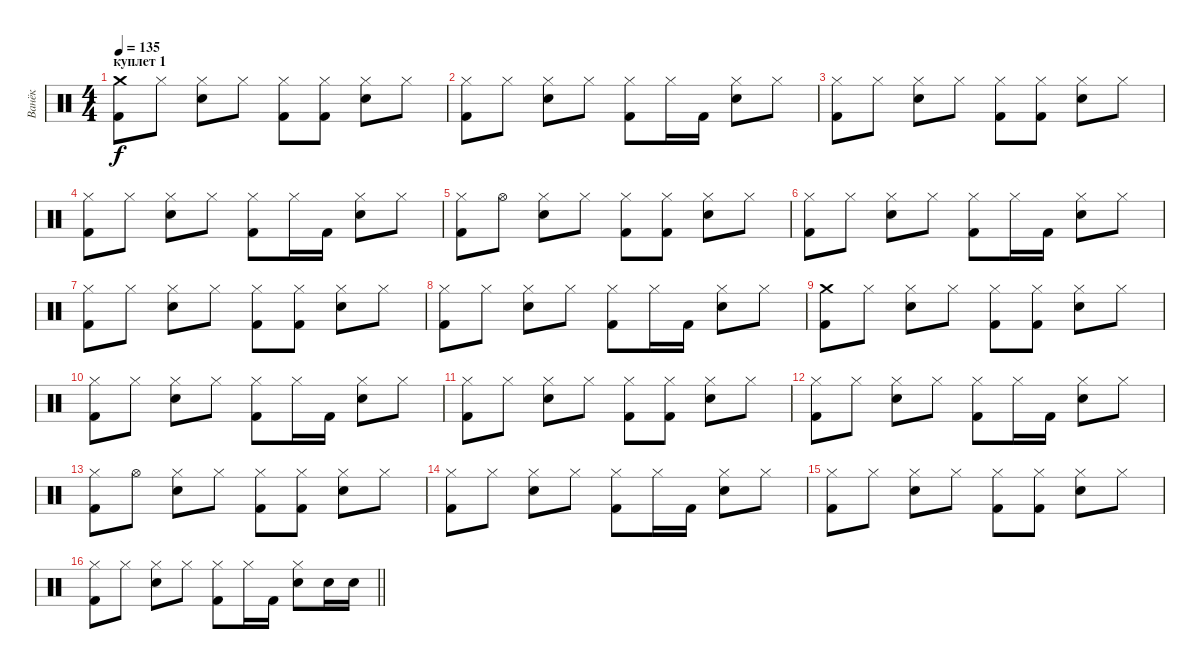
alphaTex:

\track ("Ванёк" "Ванёк") {instrument percussion}
\staff {score}
\articulation defaults
\ts (4 4)
\section ("" "куплет 1")
\tempo 135
\clef neutral
\ks c
("Crash medium (hit)" "Kick (hit) 2").8{dy f} "Hi-Hat (closed)".8 ("Hi-Hat (closed)" "Snare (hit) 2").8 "Hi-Hat (closed)".8 ("Hi-Hat (closed)" "Kick (hit) 2").8 ("Hi-Hat (closed)" "Kick (hit) 2").8 ("Hi-Hat (closed)" "Snare (hit) 2").8 "Hi-Hat (closed)".8 |
("Hi-Hat (closed)" "Kick (hit) 2").8 "Hi-Hat (closed)".8 ("Hi-Hat (closed)" "Snare (hit) 2").8 "Hi-Hat (closed)".8 ("Hi-Hat (closed)" "Kick (hit) 2").8 "Hi-Hat (closed)".16 "Kick (hit) 2".16 ("Hi-Hat (closed)" "Snare (hit) 2").8 "Hi-Hat (closed)".8 |
("Hi-Hat (closed)" "Kick (hit) 2").8 "Hi-Hat (closed)".8 ("Hi-Hat (closed)" "Snare (hit) 2").8 "Hi-Hat (closed)".8 ("Hi-Hat (closed)" "Kick (hit) 2").8 ("Hi-Hat (closed)" "Kick (hit) 2").8 ("Hi-Hat (closed)" "Snare (hit) 2").8 "Hi-Hat (closed)".8 |
("Hi-Hat (closed)" "Kick (hit) 2").8 "Hi-Hat (closed)".8 ("Hi-Hat (closed)" "Snare (hit) 2").8 "Hi-Hat (closed)".8 ("Hi-Hat (closed)" "Kick (hit) 2").8 "Hi-Hat (closed)".16 "Kick (hit) 2".16 ("Hi-Hat (closed)" "Snare (hit) 2").8 "Hi-Hat (closed)".8 |
("Hi-Hat (closed)" "Kick (hit) 2").8 "Hi-Hat (open)".8 ("Hi-Hat (closed)" "Snare (hit) 2").8 "Hi-Hat (closed)".8 ("Hi-Hat (closed)" "Kick (hit) 2").8 ("Hi-Hat (closed)" "Kick (hit) 2").8 ("Hi-Hat (closed)" "Snare (hit) 2").8 "Hi-Hat (closed)".8 |
("Hi-Hat (closed)" "Kick (hit) 2").8 "Hi-Hat (closed)".8 ("Hi-Hat (closed)" "Snare (hit) 2").8 "Hi-Hat (closed)".8 ("Hi-Hat (closed)" "Kick (hit) 2").8 "Hi-Hat (closed)".16 "Kick (hit) 2".16 ("Hi-Hat (closed)" "Snare (hit) 2").8 "Hi-Hat (closed)".8 |
("Hi-Hat (closed)" "Kick (hit) 2").8 "Hi-Hat (closed)".8 ("Hi-Hat (closed)" "Snare (hit) 2").8 "Hi-Hat (closed)".8 ("Hi-Hat (closed)" "Kick (hit) 2").8 ("Hi-Hat (closed)" "Kick (hit) 2").8 ("Hi-Hat (closed)" "Snare (hit) 2").8 "Hi-Hat (closed)".8 |
("Hi-Hat (closed)" "Kick (hit) 2").8 "Hi-Hat (closed)".8 ("Hi-Hat (closed)" "Snare (hit) 2").8 "Hi-Hat (closed)".8 ("Hi-Hat (closed)" "Kick (hit) 2").8 "Hi-Hat (closed)".16 "Kick (hit) 2".16 ("Hi-Hat (closed)" "Snare (hit) 2").8 "Hi-Hat (closed)".8 |
("Crash medium (hit)" "Kick (hit) 2").8 "Hi-Hat (closed)".8 ("Hi-Hat (closed)" "Snare (hit) 2").8 "Hi-Hat (closed)".8 ("Hi-Hat (closed)" "Kick (hit) 2").8 ("Hi-Hat (closed)" "Kick (hit) 2").8 ("Hi-Hat (closed)" "Snare (hit) 2").8 "Hi-Hat (closed)".8 |
("Hi-Hat (closed)" "Kick (hit) 2").8 "Hi-Hat (closed)".8 ("Hi-Hat (closed)" "Snare (hit) 2").8 "Hi-Hat (closed)".8 ("Hi-Hat (closed)" "Kick (hit) 2").8 "Hi-Hat (closed)".16 "Kick (hit) 2".16 ("Hi-Hat (closed)" "Snare (hit) 2").8 "Hi-Hat (closed)".8 |
("Hi-Hat (closed)" "Kick (hit) 2").8 "Hi-Hat (closed)".8 ("Hi-Hat (closed)" "Snare (hit) 2").8 "Hi-Hat (closed)".8 ("Hi-Hat (closed)" "Kick (hit) 2").8 ("Hi-Hat (closed)" "Kick (hit) 2").8 ("Hi-Hat (closed)" "Snare (hit) 2").8 "Hi-Hat (closed)".8 |
("Hi-Hat (closed)" "Kick (hit) 2").8 "Hi-Hat (closed)".8 ("Hi-Hat (closed)" "Snare (hit) 2").8 "Hi-Hat (closed)".8 ("Hi-Hat (closed)" "Kick (hit) 2").8 "Hi-Hat (closed)".16 "Kick (hit) 2".16 ("Hi-Hat (closed)" "Snare (hit) 2").8 "Hi-Hat (closed)".8 |
("Hi-Hat (closed)" "Kick (hit) 2").8 "Hi-Hat (open)".8 ("Hi-Hat (closed)" "Snare (hit) 2").8 "Hi-Hat (closed)".8 ("Hi-Hat (closed)" "Kick (hit) 2").8 ("Hi-Hat (closed)" "Kick (hit) 2").8 ("Hi-Hat (closed)" "Snare (hit) 2").8 "Hi-Hat (closed)".8 |
("Hi-Hat (closed)" "Kick (hit) 2").8 "Hi-Hat (closed)".8 ("Hi-Hat (closed)" "Snare (hit) 2").8 "Hi-Hat (closed)".8 ("Hi-Hat (closed)" "Kick (hit) 2").8 "Hi-Hat (closed)".16 "Kick (hit) 2".16 ("Hi-Hat (closed)" "Snare (hit) 2").8 "Hi-Hat (closed)".8 |
("Hi-Hat (closed)" "Kick (hit) 2").8 "Hi-Hat (closed)".8 ("Hi-Hat (closed)" "Snare (hit) 2").8 "Hi-Hat (closed)".8 ("Hi-Hat (closed)" "Kick (hit) 2").8 ("Hi-Hat (closed)" "Kick (hit) 2").8 ("Hi-Hat (closed)" "Snare (hit) 2").8 "Hi-Hat (closed)".8 |
\barLineRight lightlight
("Hi-Hat (closed)" "Kick (hit) 2").8 "Hi-Hat (closed)".8 ("Hi-Hat (closed)" "Snare (hit) 2").8 "Hi-Hat (closed)".8 ("Hi-Hat (closed)" "Kick (hit) 2").8 "Hi-Hat (closed)".16 "Kick (hit) 2".16 ("Hi-Hat (closed)" "Snare (hit) 2").8 "Snare (hit) 2".16 "Snare (hit) 2".16
